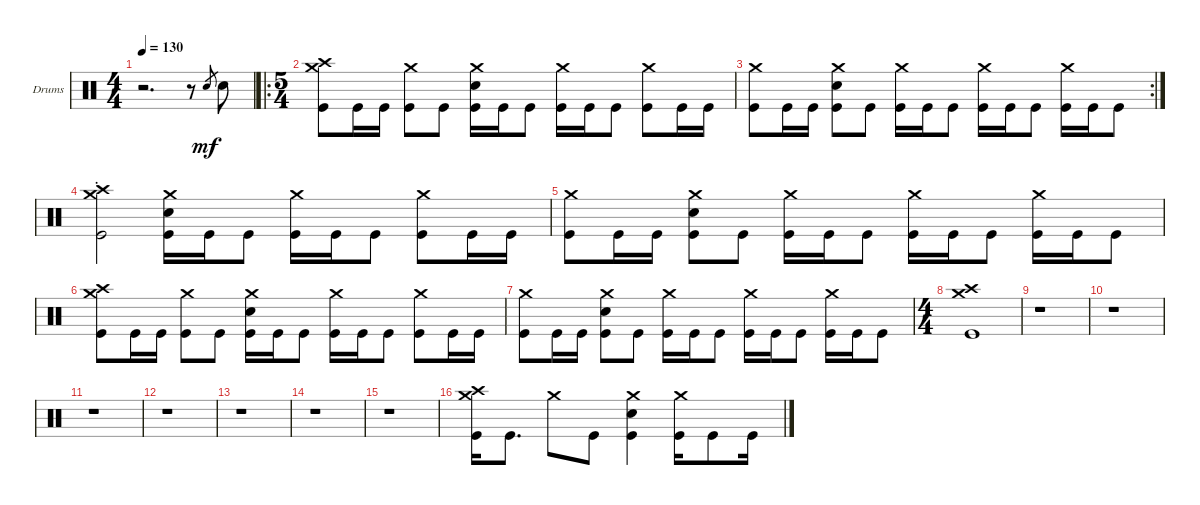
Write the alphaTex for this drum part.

\defaultSystemsLayout 4
\bracketExtendMode groupsimilarinstruments
\firstSystemTrackNameOrientation horizontal
\otherSystemsTrackNameOrientation horizontal
\track ("Drumkit" "Drums") {instrument percussion}
\staff {score}
\articulation defaults
\ts (4 4)
\tempo 130
\clef neutral
\ks c
r.2{d dy mf} r.8 "Snare (hit) 2".8{gr} "Snare (hit) 2".8 |
\ro
\ts (5 4)
("Kick (hit)" "Crash high (hit)" "Crash medium (hit)").8 "Kick (hit)".16 "Kick (hit)".16 ("Kick (hit)" "Crash medium (hit)").8 "Kick (hit)".8 ("Kick (hit)" "Crash medium (hit)" "Snare (hit) 2").16 "Kick (hit)".16 "Kick (hit)".8 ("Kick (hit)" "Crash medium (hit)").16 "Kick (hit)".16 "Kick (hit)".8 ("Kick (hit)" "Crash medium (hit)").8 "Kick (hit)".16 "Kick (hit)".16 |
\rc 2
("Kick (hit)" "Crash medium (hit)").8 "Kick (hit)".16 "Kick (hit)".16 ("Kick (hit)" "Crash medium (hit)" "Snare (hit) 2").8 "Kick (hit)".8 ("Kick (hit)" "Crash medium (hit)").16 "Kick (hit)".16 "Kick (hit)".8 ("Kick (hit)" "Crash medium (hit)").16 "Kick (hit)".16 "Kick (hit)".8 ("Kick (hit)" "Crash medium (hit)").16 "Kick (hit)".16 "Kick (hit)".8 |
("Kick (hit)" "Crash medium (hit)"{st} "Crash high (hit)"{st}).2 ("Kick (hit)" "Crash medium (hit)" "Snare (hit) 2").16 "Kick (hit)".16 "Kick (hit)".8 ("Kick (hit)" "Crash medium (hit)").16 "Kick (hit)".16 "Kick (hit)".8 ("Kick (hit)" "Crash medium (hit)").8 "Kick (hit)".16 "Kick (hit)".16 |
("Kick (hit)" "Crash medium (hit)").8 "Kick (hit)".16 "Kick (hit)".16 ("Kick (hit)" "Crash medium (hit)" "Snare (hit) 2").8 "Kick (hit)".8 ("Kick (hit)" "Crash medium (hit)").16 "Kick (hit)".16 "Kick (hit)".8 ("Kick (hit)" "Crash medium (hit)").16 "Kick (hit)".16 "Kick (hit)".8 ("Kick (hit)" "Crash medium (hit)").16 "Kick (hit)".16 "Kick (hit)".8 |
("Kick (hit)" "Crash high (hit)" "Crash medium (hit)").8 "Kick (hit)".16 "Kick (hit)".16 ("Kick (hit)" "Crash medium (hit)").8 "Kick (hit)".8 ("Kick (hit)" "Crash medium (hit)" "Snare (hit) 2").16 "Kick (hit)".16 "Kick (hit)".8 ("Kick (hit)" "Crash medium (hit)").16 "Kick (hit)".16 "Kick (hit)".8 ("Kick (hit)" "Crash medium (hit)").8 "Kick (hit)".16 "Kick (hit)".16 |
("Kick (hit)" "Crash medium (hit)").8 "Kick (hit)".16 "Kick (hit)".16 ("Kick (hit)" "Crash medium (hit)" "Snare (hit) 2").8 "Kick (hit)".8 ("Kick (hit)" "Crash medium (hit)").16 "Kick (hit)".16 "Kick (hit)".8 ("Kick (hit)" "Crash medium (hit)").16 "Kick (hit)".16 "Kick (hit)".8 ("Kick (hit)" "Crash medium (hit)").16 "Kick (hit)".16 "Kick (hit)".8 |
\ts (4 4)
("Kick (hit)" "Crash medium (hit)" "Crash high (hit)").1 |
r.1 |
r.1 |
r.1 |
r.1 |
r.1 |
r.1 |
r.1 |
("Crash high (hit)" "Crash medium (hit)" "Kick (hit)").16 "Kick (hit)".8{d} "Crash medium (hit)".8 "Kick (hit)".8 ("Kick (hit)" "Crash medium (hit)" "Snare (hit) 2").4 ("Crash medium (hit)" "Kick (hit)").16 "Kick (hit)".8 "Kick (hit)".16
